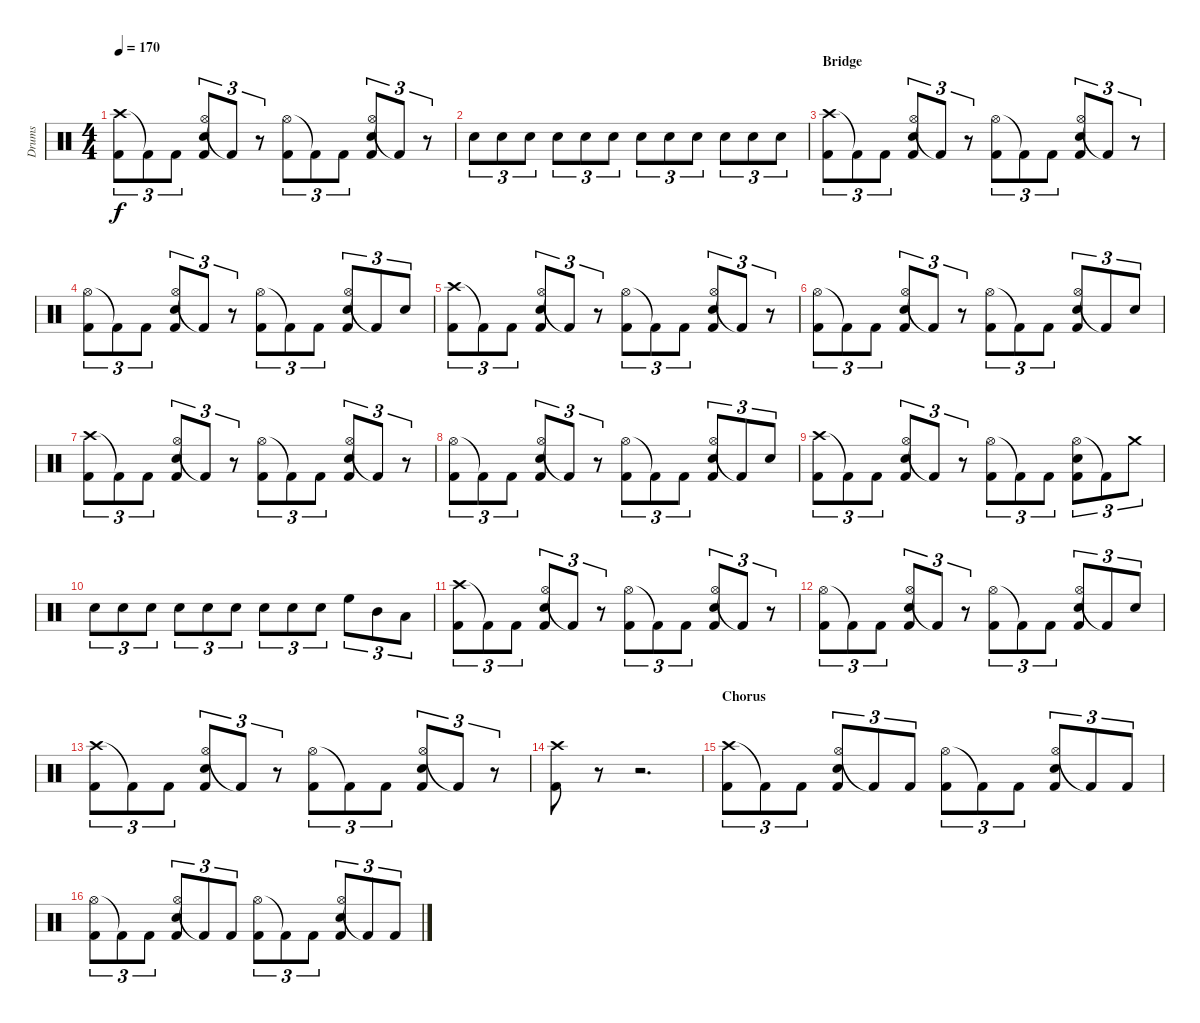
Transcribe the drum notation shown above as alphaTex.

\track ("Drums" "Drums") {instrument percussion}
\staff {score}
\articulation defaults
\ts (4 4)
\tempo 170
\clef neutral
\ks c
("Crash high (hit)" "Kick (hit) 2").8{tu (3 2) dy f} "Kick (hit) 2"{t}.8{tu (3 2)} "Kick (hit) 2".8{tu (3 2)} ("Hi-Hat (open)" "Snare (hit) 2" "Kick (hit) 2").8{tu (3 2)} "Kick (hit) 2"{t}.8{tu (3 2)} r.8{tu (3 2)} ("Hi-Hat (open)" "Kick (hit) 2").8{tu (3 2)} "Kick (hit) 2"{t}.8{tu (3 2)} "Kick (hit) 2".8{tu (3 2)} ("Hi-Hat (open)" "Snare (hit) 2" "Kick (hit) 2").8{tu (3 2)} "Kick (hit) 2"{t}.8{tu (3 2)} r.8{tu (3 2)} |
"Snare (hit) 2".8{tu (3 2)} "Snare (hit) 2".8{tu (3 2)} "Snare (hit) 2".8{tu (3 2)} "Snare (hit) 2".8{tu (3 2)} "Snare (hit) 2".8{tu (3 2)} "Snare (hit) 2".8{tu (3 2)} "Snare (hit) 2".8{tu (3 2)} "Snare (hit) 2".8{tu (3 2)} "Snare (hit) 2".8{tu (3 2)} "Snare (hit) 2".8{tu (3 2)} "Snare (hit) 2".8{tu (3 2)} "Snare (hit) 2".8{tu (3 2)} |
\section ("" "Bridge")
("Crash high (hit)" "Kick (hit) 2").8{tu (3 2)} "Kick (hit) 2"{t}.8{tu (3 2)} "Kick (hit) 2".8{tu (3 2)} ("Hi-Hat (open)" "Snare (hit) 2" "Kick (hit) 2").8{tu (3 2)} "Kick (hit) 2"{t}.8{tu (3 2)} r.8{tu (3 2)} ("Hi-Hat (open)" "Kick (hit) 2").8{tu (3 2)} "Kick (hit) 2"{t}.8{tu (3 2)} "Kick (hit) 2".8{tu (3 2)} ("Hi-Hat (open)" "Snare (hit) 2" "Kick (hit) 2").8{tu (3 2)} "Kick (hit) 2"{t}.8{tu (3 2)} r.8{tu (3 2)} |
("Hi-Hat (open)" "Kick (hit) 2").8{tu (3 2)} "Kick (hit) 2"{t}.8{tu (3 2)} "Kick (hit) 2".8{tu (3 2)} ("Hi-Hat (open)" "Snare (hit) 2" "Kick (hit) 2").8{tu (3 2)} "Kick (hit) 2"{t}.8{tu (3 2)} r.8{tu (3 2)} ("Hi-Hat (open)" "Kick (hit) 2").8{tu (3 2)} "Kick (hit) 2"{t}.8{tu (3 2)} "Kick (hit) 2".8{tu (3 2)} ("Hi-Hat (open)" "Snare (hit) 2" "Kick (hit) 2").8{tu (3 2)} "Kick (hit) 2"{t}.8{tu (3 2)} "Snare (hit) 2".8{tu (3 2)} |
("Crash high (hit)" "Kick (hit) 2").8{tu (3 2)} "Kick (hit) 2"{t}.8{tu (3 2)} "Kick (hit) 2".8{tu (3 2)} ("Hi-Hat (open)" "Snare (hit) 2" "Kick (hit) 2").8{tu (3 2)} "Kick (hit) 2"{t}.8{tu (3 2)} r.8{tu (3 2)} ("Hi-Hat (open)" "Kick (hit) 2").8{tu (3 2)} "Kick (hit) 2"{t}.8{tu (3 2)} "Kick (hit) 2".8{tu (3 2)} ("Hi-Hat (open)" "Snare (hit) 2" "Kick (hit) 2").8{tu (3 2)} "Kick (hit) 2"{t}.8{tu (3 2)} r.8{tu (3 2)} |
("Hi-Hat (open)" "Kick (hit) 2").8{tu (3 2)} "Kick (hit) 2"{t}.8{tu (3 2)} "Kick (hit) 2".8{tu (3 2)} ("Hi-Hat (open)" "Snare (hit) 2" "Kick (hit) 2").8{tu (3 2)} "Kick (hit) 2"{t}.8{tu (3 2)} r.8{tu (3 2)} ("Hi-Hat (open)" "Kick (hit) 2").8{tu (3 2)} "Kick (hit) 2"{t}.8{tu (3 2)} "Kick (hit) 2".8{tu (3 2)} ("Hi-Hat (open)" "Snare (hit) 2" "Kick (hit) 2").8{tu (3 2)} "Kick (hit) 2"{t}.8{tu (3 2)} "Snare (hit) 2".8{tu (3 2)} |
("Crash high (hit)" "Kick (hit) 2").8{tu (3 2)} "Kick (hit) 2"{t}.8{tu (3 2)} "Kick (hit) 2".8{tu (3 2)} ("Hi-Hat (open)" "Snare (hit) 2" "Kick (hit) 2").8{tu (3 2)} "Kick (hit) 2"{t}.8{tu (3 2)} r.8{tu (3 2)} ("Hi-Hat (open)" "Kick (hit) 2").8{tu (3 2)} "Kick (hit) 2"{t}.8{tu (3 2)} "Kick (hit) 2".8{tu (3 2)} ("Hi-Hat (open)" "Snare (hit) 2" "Kick (hit) 2").8{tu (3 2)} "Kick (hit) 2"{t}.8{tu (3 2)} r.8{tu (3 2)} |
("Hi-Hat (open)" "Kick (hit) 2").8{tu (3 2)} "Kick (hit) 2"{t}.8{tu (3 2)} "Kick (hit) 2".8{tu (3 2)} ("Hi-Hat (open)" "Snare (hit) 2" "Kick (hit) 2").8{tu (3 2)} "Kick (hit) 2"{t}.8{tu (3 2)} r.8{tu (3 2)} ("Hi-Hat (open)" "Kick (hit) 2").8{tu (3 2)} "Kick (hit) 2"{t}.8{tu (3 2)} "Kick (hit) 2".8{tu (3 2)} ("Hi-Hat (open)" "Snare (hit) 2" "Kick (hit) 2").8{tu (3 2)} "Kick (hit) 2"{t}.8{tu (3 2)} "Snare (hit) 2".8{tu (3 2)} |
("Crash high (hit)" "Kick (hit) 2").8{tu (3 2)} "Kick (hit) 2"{t}.8{tu (3 2)} "Kick (hit) 2".8{tu (3 2)} ("Hi-Hat (open)" "Snare (hit) 2" "Kick (hit) 2").8{tu (3 2)} "Kick (hit) 2"{t}.8{tu (3 2)} r.8{tu (3 2)} ("Hi-Hat (open)" "Kick (hit) 2").8{tu (3 2)} "Kick (hit) 2"{t}.8{tu (3 2)} "Kick (hit) 2".8{tu (3 2)} ("Hi-Hat (open)" "Snare (hit) 2" "Kick (hit) 2").8{tu (3 2)} "Kick (hit) 2"{t}.8{tu (3 2)} "Crash medium (hit)".8{tu (3 2)} |
"Snare (hit) 2".8{tu (3 2)} "Snare (hit) 2".8{tu (3 2)} "Snare (hit) 2".8{tu (3 2)} "Snare (hit) 2".8{tu (3 2)} "Snare (hit) 2".8{tu (3 2)} "Snare (hit) 2".8{tu (3 2)} "Snare (hit) 2".8{tu (3 2)} "Snare (hit) 2".8{tu (3 2)} "Snare (hit) 2".8{tu (3 2)} "High Floor Tom (hit)".8{tu (3 2)} "Mid Tom (hit)".8{tu (3 2)} "Low Tom (hit)".8{tu (3 2)} |
("Crash high (hit)" "Kick (hit) 2").8{tu (3 2)} "Kick (hit) 2"{t}.8{tu (3 2)} "Kick (hit) 2".8{tu (3 2)} ("Hi-Hat (open)" "Snare (hit) 2" "Kick (hit) 2").8{tu (3 2)} "Kick (hit) 2"{t}.8{tu (3 2)} r.8{tu (3 2)} ("Hi-Hat (open)" "Kick (hit) 2").8{tu (3 2)} "Kick (hit) 2"{t}.8{tu (3 2)} "Kick (hit) 2".8{tu (3 2)} ("Hi-Hat (open)" "Snare (hit) 2" "Kick (hit) 2").8{tu (3 2)} "Kick (hit) 2"{t}.8{tu (3 2)} r.8{tu (3 2)} |
("Hi-Hat (open)" "Kick (hit) 2").8{tu (3 2)} "Kick (hit) 2"{t}.8{tu (3 2)} "Kick (hit) 2".8{tu (3 2)} ("Hi-Hat (open)" "Snare (hit) 2" "Kick (hit) 2").8{tu (3 2)} "Kick (hit) 2"{t}.8{tu (3 2)} r.8{tu (3 2)} ("Hi-Hat (open)" "Kick (hit) 2").8{tu (3 2)} "Kick (hit) 2"{t}.8{tu (3 2)} "Kick (hit) 2".8{tu (3 2)} ("Hi-Hat (open)" "Snare (hit) 2" "Kick (hit) 2").8{tu (3 2)} "Kick (hit) 2"{t}.8{tu (3 2)} "Snare (hit) 2".8{tu (3 2)} |
("Crash high (hit)" "Kick (hit) 2").8{tu (3 2)} "Kick (hit) 2"{t}.8{tu (3 2)} "Kick (hit) 2".8{tu (3 2)} ("Hi-Hat (open)" "Snare (hit) 2" "Kick (hit) 2").8{tu (3 2)} "Kick (hit) 2"{t}.8{tu (3 2)} r.8{tu (3 2)} ("Hi-Hat (open)" "Kick (hit) 2").8{tu (3 2)} "Kick (hit) 2"{t}.8{tu (3 2)} "Kick (hit) 2".8{tu (3 2)} ("Hi-Hat (open)" "Snare (hit) 2" "Kick (hit) 2").8{tu (3 2)} "Kick (hit) 2"{t}.8{tu (3 2)} r.8{tu (3 2)} |
("Crash high (hit)" "Kick (hit) 2").8 r.8 r.2{d} |
\section ("" "Chorus")
("Crash high (hit)" "Kick (hit) 2").8{tu (3 2)} "Kick (hit) 2"{t}.8{tu (3 2)} "Kick (hit) 2".8{tu (3 2)} ("Hi-Hat (open)" "Snare (hit) 2" "Kick (hit) 2").8{tu (3 2)} "Kick (hit) 2"{t}.8{tu (3 2)} "Kick (hit) 2".8{tu (3 2)} ("Hi-Hat (open)" "Kick (hit) 2").8{tu (3 2)} "Kick (hit) 2"{t}.8{tu (3 2)} "Kick (hit) 2".8{tu (3 2)} ("Hi-Hat (open)" "Snare (hit) 2" "Kick (hit) 2").8{tu (3 2)} "Kick (hit) 2"{t}.8{tu (3 2)} "Kick (hit) 2".8{tu (3 2)} |
("Hi-Hat (open)" "Kick (hit) 2").8{tu (3 2)} "Kick (hit) 2"{t}.8{tu (3 2)} "Kick (hit) 2".8{tu (3 2)} ("Hi-Hat (open)" "Snare (hit) 2" "Kick (hit) 2").8{tu (3 2)} "Kick (hit) 2"{t}.8{tu (3 2)} "Kick (hit) 2".8{tu (3 2)} ("Hi-Hat (open)" "Kick (hit) 2").8{tu (3 2)} "Kick (hit) 2"{t}.8{tu (3 2)} "Kick (hit) 2".8{tu (3 2)} ("Hi-Hat (open)" "Snare (hit) 2" "Kick (hit) 2").8{tu (3 2)} "Kick (hit) 2"{t}.8{tu (3 2)} "Kick (hit) 2".8{tu (3 2)}
